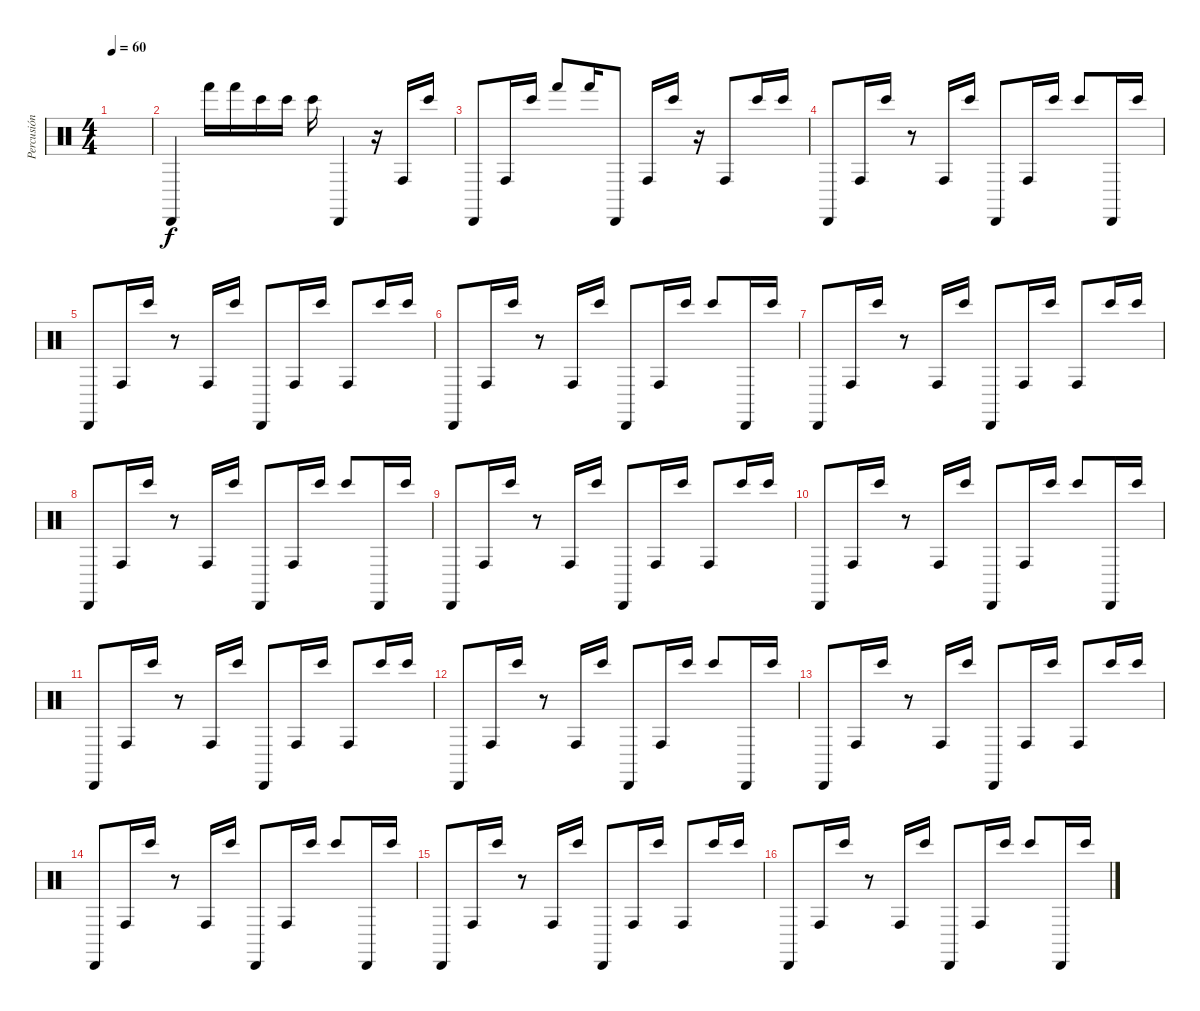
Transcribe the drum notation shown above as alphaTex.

\track ("Percusión" "Percusión") {instrument percussion}
\staff {score}
\articulation defaults
\ts (4 4)
\tempo 60
\clef neutral
\ks c
|
"Cabasa (hit)".4 "Hand (hit)".16 "Hand (hit)".16 "Bongo High (hit)".16 "Bongo High (hit)".16 "Bongo High (hit)".16 "Cabasa (hit)".4 r.16 "Conga high (hit)".16 "Bongo High (hit)".16 |
"Cabasa (hit)".8 "Conga high (hit)".16 "Bongo High (hit)".16 "Hand (hit)".8 "Hand (hit)".16 "Cabasa (hit)".8 "Conga high (hit)".16 "Bongo High (hit)".16 r.16 "Conga high (hit)".8 "Bongo High (hit)".16 "Bongo High (hit)".16 |
"Cabasa (hit)".8 "Conga high (hit)".16 "Bongo High (hit)".16 r.8 "Conga high (hit)".16 "Bongo High (hit)".16 "Cabasa (hit)".8 "Conga high (hit)".16 "Bongo High (hit)".16 "Bongo High (hit)".8 "Cabasa (hit)".16 "Bongo High (hit)".16 |
"Cabasa (hit)".8 "Conga high (hit)".16 "Bongo High (hit)".16 r.8 "Conga high (hit)".16 "Bongo High (hit)".16 "Cabasa (hit)".8 "Conga high (hit)".16 "Bongo High (hit)".16 "Conga high (hit)".8 "Bongo High (hit)".16 "Bongo High (hit)".16 |
"Cabasa (hit)".8 "Conga high (hit)".16 "Bongo High (hit)".16 r.8 "Conga high (hit)".16 "Bongo High (hit)".16 "Cabasa (hit)".8 "Conga high (hit)".16 "Bongo High (hit)".16 "Bongo High (hit)".8 "Cabasa (hit)".16 "Bongo High (hit)".16 |
"Cabasa (hit)".8 "Conga high (hit)".16 "Bongo High (hit)".16 r.8 "Conga high (hit)".16 "Bongo High (hit)".16 "Cabasa (hit)".8 "Conga high (hit)".16 "Bongo High (hit)".16 "Conga high (hit)".8 "Bongo High (hit)".16 "Bongo High (hit)".16 |
"Cabasa (hit)".8 "Conga high (hit)".16 "Bongo High (hit)".16 r.8 "Conga high (hit)".16 "Bongo High (hit)".16 "Cabasa (hit)".8 "Conga high (hit)".16 "Bongo High (hit)".16 "Bongo High (hit)".8 "Cabasa (hit)".16 "Bongo High (hit)".16 |
"Cabasa (hit)".8 "Conga high (hit)".16 "Bongo High (hit)".16 r.8 "Conga high (hit)".16 "Bongo High (hit)".16 "Cabasa (hit)".8 "Conga high (hit)".16 "Bongo High (hit)".16 "Conga high (hit)".8 "Bongo High (hit)".16 "Bongo High (hit)".16 |
"Cabasa (hit)".8 "Conga high (hit)".16 "Bongo High (hit)".16 r.8 "Conga high (hit)".16 "Bongo High (hit)".16 "Cabasa (hit)".8 "Conga high (hit)".16 "Bongo High (hit)".16 "Bongo High (hit)".8 "Cabasa (hit)".16 "Bongo High (hit)".16 |
"Cabasa (hit)".8 "Conga high (hit)".16 "Bongo High (hit)".16 r.8 "Conga high (hit)".16 "Bongo High (hit)".16 "Cabasa (hit)".8 "Conga high (hit)".16 "Bongo High (hit)".16 "Conga high (hit)".8 "Bongo High (hit)".16 "Bongo High (hit)".16 |
"Cabasa (hit)".8 "Conga high (hit)".16 "Bongo High (hit)".16 r.8 "Conga high (hit)".16 "Bongo High (hit)".16 "Cabasa (hit)".8 "Conga high (hit)".16 "Bongo High (hit)".16 "Bongo High (hit)".8 "Cabasa (hit)".16 "Bongo High (hit)".16 |
"Cabasa (hit)".8 "Conga high (hit)".16 "Bongo High (hit)".16 r.8 "Conga high (hit)".16 "Bongo High (hit)".16 "Cabasa (hit)".8 "Conga high (hit)".16 "Bongo High (hit)".16 "Conga high (hit)".8 "Bongo High (hit)".16 "Bongo High (hit)".16 |
"Cabasa (hit)".8 "Conga high (hit)".16 "Bongo High (hit)".16 r.8 "Conga high (hit)".16 "Bongo High (hit)".16 "Cabasa (hit)".8 "Conga high (hit)".16 "Bongo High (hit)".16 "Bongo High (hit)".8 "Cabasa (hit)".16 "Bongo High (hit)".16 |
"Cabasa (hit)".8 "Conga high (hit)".16 "Bongo High (hit)".16 r.8 "Conga high (hit)".16 "Bongo High (hit)".16 "Cabasa (hit)".8 "Conga high (hit)".16 "Bongo High (hit)".16 "Conga high (hit)".8 "Bongo High (hit)".16 "Bongo High (hit)".16 |
"Cabasa (hit)".8 "Conga high (hit)".16 "Bongo High (hit)".16 r.8 "Conga high (hit)".16 "Bongo High (hit)".16 "Cabasa (hit)".8 "Conga high (hit)".16 "Bongo High (hit)".16 "Bongo High (hit)".8 "Cabasa (hit)".16 "Bongo High (hit)".16
